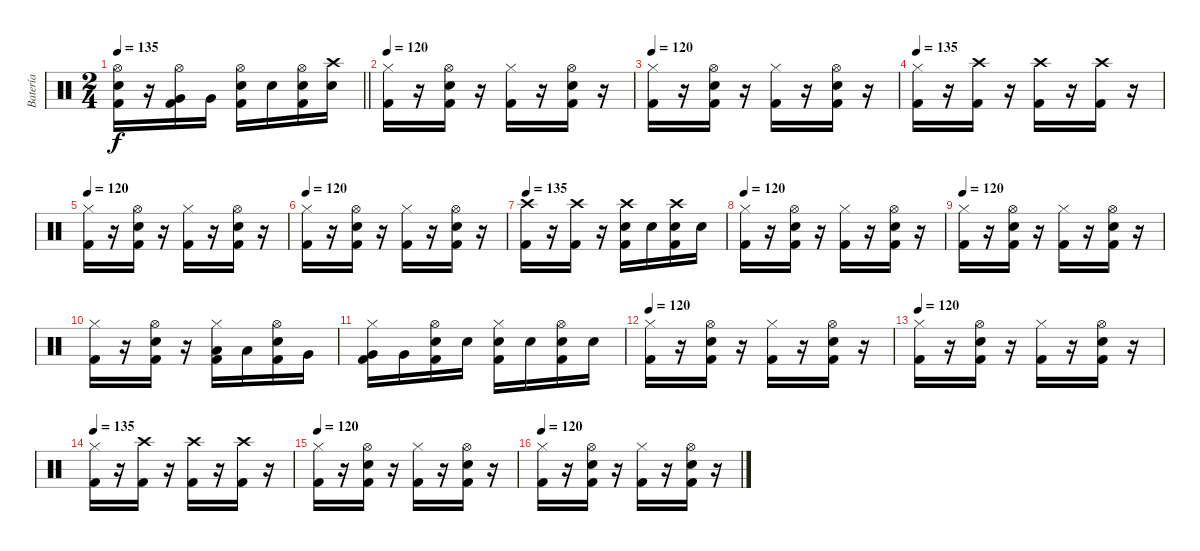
\track ("Batería   (Jony)" "Batería   ") {instrument percussion}
\staff {score}
\articulation defaults
\ts (2 4)
\tempo 135
\clef neutral
\barLineRight lightlight
\ks c
("Hi-Hat (open)" "Electric Snare (hit)" "Kick (hit) 2").16{dy f} r.16 ("Hi-Hat (open)" "Very Low Tom (hit)" "Kick (hit) 2").16 "Very Low Tom (hit)".16 ("Hi-Hat (open)" "Electric Snare (hit)" "Kick (hit) 2").16 "Electric Snare (hit)".16 ("Hi-Hat (open)" "Electric Snare (hit)" "Kick (hit) 2").16 ("Crash high (hit)" "Electric Snare (hit)").16 |
\tempo 120
("Hi-Hat (closed)" "Kick (hit) 2").16 r.16 ("Hi-Hat (open)" "Electric Snare (hit)" "Kick (hit) 2").16 r.16 ("Hi-Hat (closed)" "Kick (hit) 2").16 r.16 ("Hi-Hat (open)" "Electric Snare (hit)" "Kick (hit) 2").16 r.16 |
\tempo 120
("Hi-Hat (closed)" "Kick (hit) 2").16 r.16 ("Hi-Hat (open)" "Electric Snare (hit)" "Kick (hit) 2").16 r.16 ("Hi-Hat (closed)" "Kick (hit) 2").16 r.16 ("Hi-Hat (open)" "Electric Snare (hit)" "Kick (hit) 2").16 r.16 |
\tempo 135
("Hi-Hat (closed)" "Kick (hit) 2").16 r.16 ("Crash high (hit)" "Kick (hit) 2").16 r.16 ("Crash high (hit)" "Kick (hit) 2").16 r.16 ("Crash high (hit)" "Kick (hit) 2").16 r.16 |
\tempo 120
("Hi-Hat (closed)" "Kick (hit) 2").16 r.16 ("Hi-Hat (open)" "Electric Snare (hit)" "Kick (hit) 2").16 r.16 ("Hi-Hat (closed)" "Kick (hit) 2").16 r.16 ("Hi-Hat (open)" "Electric Snare (hit)" "Kick (hit) 2").16 r.16 |
\tempo 120
("Hi-Hat (closed)" "Kick (hit) 2").16 r.16 ("Hi-Hat (open)" "Electric Snare (hit)" "Kick (hit) 2").16 r.16 ("Hi-Hat (closed)" "Kick (hit) 2").16 r.16 ("Hi-Hat (open)" "Electric Snare (hit)" "Kick (hit) 2").16 r.16 |
\tempo 135
("Crash high (hit)" "Kick (hit) 2").16 r.16 ("Crash high (hit)" "Kick (hit) 2").16 r.16 ("Crash high (hit)" "Electric Snare (hit)" "Kick (hit) 2").16 "Electric Snare (hit)".16 ("Crash high (hit)" "Electric Snare (hit)" "Kick (hit) 2").16 "Electric Snare (hit)".16 |
\tempo 120
("Hi-Hat (closed)" "Kick (hit) 2").16 r.16 ("Hi-Hat (open)" "Electric Snare (hit)" "Kick (hit) 2").16 r.16 ("Hi-Hat (closed)" "Kick (hit) 2").16 r.16 ("Hi-Hat (open)" "Electric Snare (hit)" "Kick (hit) 2").16 r.16 |
\tempo 120
("Hi-Hat (closed)" "Kick (hit) 2").16 r.16 ("Hi-Hat (open)" "Electric Snare (hit)" "Kick (hit) 2").16 r.16 ("Hi-Hat (closed)" "Kick (hit) 2").16 r.16 ("Hi-Hat (open)" "Electric Snare (hit)" "Kick (hit) 2").16 r.16 |
("Hi-Hat (closed)" "Kick (hit) 2").16 r.16 ("Hi-Hat (open)" "Electric Snare (hit)" "Kick (hit) 2").16 r.16 ("Hi-Hat (closed)" "Low Tom (hit)" "Kick (hit) 2").16 "Low Tom (hit)".16 ("Hi-Hat (open)" "Electric Snare (hit)" "Kick (hit) 2").16 "Very Low Tom (hit)".16 |
("Hi-Hat (closed)" "Very Low Tom (hit)" "Kick (hit) 2").16 "Very Low Tom (hit)".16 ("Hi-Hat (open)" "Electric Snare (hit)" "Kick (hit) 2").16 "Electric Snare (hit)".16 ("Hi-Hat (closed)" "Electric Snare (hit)" "Kick (hit) 2").16 "Electric Snare (hit)".16 ("Hi-Hat (open)" "Electric Snare (hit)" "Kick (hit) 2").16 "Electric Snare (hit)".16 |
\tempo 120
("Hi-Hat (closed)" "Kick (hit) 2").16 r.16 ("Hi-Hat (open)" "Electric Snare (hit)" "Kick (hit) 2").16 r.16 ("Hi-Hat (closed)" "Kick (hit) 2").16 r.16 ("Hi-Hat (open)" "Electric Snare (hit)" "Kick (hit) 2").16 r.16 |
\tempo 120
("Hi-Hat (closed)" "Kick (hit) 2").16 r.16 ("Hi-Hat (open)" "Electric Snare (hit)" "Kick (hit) 2").16 r.16 ("Hi-Hat (closed)" "Kick (hit) 2").16 r.16 ("Hi-Hat (open)" "Electric Snare (hit)" "Kick (hit) 2").16 r.16 |
\tempo 135
("Hi-Hat (closed)" "Kick (hit) 2").16 r.16 ("Crash high (hit)" "Kick (hit) 2").16 r.16 ("Crash high (hit)" "Kick (hit) 2").16 r.16 ("Crash high (hit)" "Kick (hit) 2").16 r.16 |
\tempo 120
("Hi-Hat (closed)" "Kick (hit) 2").16 r.16 ("Hi-Hat (open)" "Electric Snare (hit)" "Kick (hit) 2").16 r.16 ("Hi-Hat (closed)" "Kick (hit) 2").16 r.16 ("Hi-Hat (open)" "Electric Snare (hit)" "Kick (hit) 2").16 r.16 |
\tempo 120
("Hi-Hat (closed)" "Kick (hit) 2").16 r.16 ("Hi-Hat (open)" "Electric Snare (hit)" "Kick (hit) 2").16 r.16 ("Hi-Hat (closed)" "Kick (hit) 2").16 r.16 ("Hi-Hat (open)" "Electric Snare (hit)" "Kick (hit) 2").16 r.16
